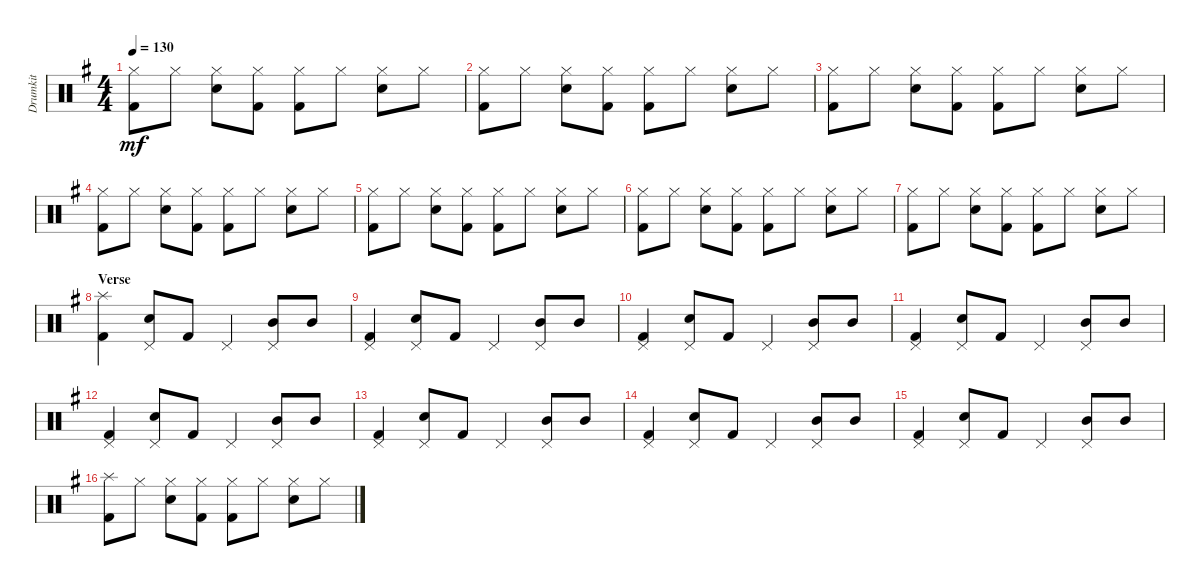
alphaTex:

\track ("Drumkit" "Drumkit") {instrument percussion}
\staff {score}
\articulation defaults
\ts (4 4)
\tempo 130
\clef neutral
\ks g
("Hi-Hat (closed)" "Kick (hit) 2").8{dy mf} "Hi-Hat (closed)".8 ("Hi-Hat (closed)" "Snare (hit) 2").8 ("Hi-Hat (closed)" "Kick (hit) 2").8 ("Hi-Hat (closed)" "Kick (hit) 2").8 "Hi-Hat (closed)".8 ("Hi-Hat (closed)" "Snare (hit) 2").8 "Hi-Hat (closed)".8 |
("Hi-Hat (closed)" "Kick (hit) 2").8 "Hi-Hat (closed)".8 ("Hi-Hat (closed)" "Snare (hit) 2").8 ("Hi-Hat (closed)" "Kick (hit) 2").8 ("Hi-Hat (closed)" "Kick (hit) 2").8 "Hi-Hat (closed)".8 ("Hi-Hat (closed)" "Snare (hit) 2").8 "Hi-Hat (closed)".8 |
("Hi-Hat (closed)" "Kick (hit) 2").8 "Hi-Hat (closed)".8 ("Hi-Hat (closed)" "Snare (hit) 2").8 ("Hi-Hat (closed)" "Kick (hit) 2").8 ("Hi-Hat (closed)" "Kick (hit) 2").8 "Hi-Hat (closed)".8 ("Hi-Hat (closed)" "Snare (hit) 2").8 "Hi-Hat (closed)".8 |
("Hi-Hat (closed)" "Kick (hit) 2").8 "Hi-Hat (closed)".8 ("Hi-Hat (closed)" "Snare (hit) 2").8 ("Hi-Hat (closed)" "Kick (hit) 2").8 ("Hi-Hat (closed)" "Kick (hit) 2").8 "Hi-Hat (closed)".8 ("Hi-Hat (closed)" "Snare (hit) 2").8 "Hi-Hat (closed)".8 |
("Hi-Hat (closed)" "Kick (hit) 2").8 "Hi-Hat (closed)".8 ("Hi-Hat (closed)" "Snare (hit) 2").8 ("Hi-Hat (closed)" "Kick (hit) 2").8 ("Hi-Hat (closed)" "Kick (hit) 2").8 "Hi-Hat (closed)".8 ("Hi-Hat (closed)" "Snare (hit) 2").8 "Hi-Hat (closed)".8 |
("Hi-Hat (closed)" "Kick (hit) 2").8 "Hi-Hat (closed)".8 ("Hi-Hat (closed)" "Snare (hit) 2").8 ("Hi-Hat (closed)" "Kick (hit) 2").8 ("Hi-Hat (closed)" "Kick (hit) 2").8 "Hi-Hat (closed)".8 ("Hi-Hat (closed)" "Snare (hit) 2").8 "Hi-Hat (closed)".8 |
("Hi-Hat (closed)" "Kick (hit) 2").8 "Hi-Hat (closed)".8 ("Hi-Hat (closed)" "Snare (hit) 2").8 ("Hi-Hat (closed)" "Kick (hit) 2").8 ("Hi-Hat (closed)" "Kick (hit) 2").8 "Hi-Hat (closed)".8 ("Hi-Hat (closed)" "Snare (hit) 2").8 "Hi-Hat (closed)".8 |
\section ("" "Verse")
("Kick (hit) 2" "Splash (hit)").4 ("Snare (hit) 2" "Pedal Hi-Hat (hit)").8 "Kick (hit) 2".8 "Pedal Hi-Hat (hit)".4 ("Pedal Hi-Hat (hit)" "Mid Tom (hit)").8 "Mid Tom (hit)".8 |
("Pedal Hi-Hat (hit)" "Kick (hit) 2").4 ("Pedal Hi-Hat (hit)" "Snare (hit) 2").8 "Kick (hit) 2".8 "Pedal Hi-Hat (hit)".4 ("Pedal Hi-Hat (hit)" "Mid Tom (hit)").8 "Mid Tom (hit)".8 |
("Pedal Hi-Hat (hit)" "Kick (hit) 2").4 ("Pedal Hi-Hat (hit)" "Snare (hit) 2").8 "Kick (hit) 2".8 "Pedal Hi-Hat (hit)".4 ("Pedal Hi-Hat (hit)" "Mid Tom (hit)").8 "Mid Tom (hit)".8 |
("Pedal Hi-Hat (hit)" "Kick (hit) 2").4 ("Pedal Hi-Hat (hit)" "Snare (hit) 2").8 "Kick (hit) 2".8 "Pedal Hi-Hat (hit)".4 ("Pedal Hi-Hat (hit)" "Mid Tom (hit)").8 "Mid Tom (hit)".8 |
("Pedal Hi-Hat (hit)" "Kick (hit) 2").4 ("Pedal Hi-Hat (hit)" "Snare (hit) 2").8 "Kick (hit) 2".8 "Pedal Hi-Hat (hit)".4 ("Pedal Hi-Hat (hit)" "Mid Tom (hit)").8 "Mid Tom (hit)".8 |
("Pedal Hi-Hat (hit)" "Kick (hit) 2").4 ("Pedal Hi-Hat (hit)" "Snare (hit) 2").8 "Kick (hit) 2".8 "Pedal Hi-Hat (hit)".4 ("Pedal Hi-Hat (hit)" "Mid Tom (hit)").8 "Mid Tom (hit)".8 |
("Pedal Hi-Hat (hit)" "Kick (hit) 2").4 ("Pedal Hi-Hat (hit)" "Snare (hit) 2").8 "Kick (hit) 2".8 "Pedal Hi-Hat (hit)".4 ("Pedal Hi-Hat (hit)" "Mid Tom (hit)").8 "Mid Tom (hit)".8 |
("Pedal Hi-Hat (hit)" "Kick (hit) 2").4 ("Pedal Hi-Hat (hit)" "Snare (hit) 2").8 "Kick (hit) 2".8 "Pedal Hi-Hat (hit)".4 ("Pedal Hi-Hat (hit)" "Mid Tom (hit)").8 "Mid Tom (hit)".8 |
("Splash (hit)" "Kick (hit) 2").8 "Hi-Hat (closed)".8 ("Hi-Hat (closed)" "Snare (hit) 2").8 ("Hi-Hat (closed)" "Kick (hit) 2").8 ("Hi-Hat (closed)" "Kick (hit) 2").8 "Hi-Hat (closed)".8 ("Hi-Hat (closed)" "Snare (hit) 2").8 "Hi-Hat (closed)".8
